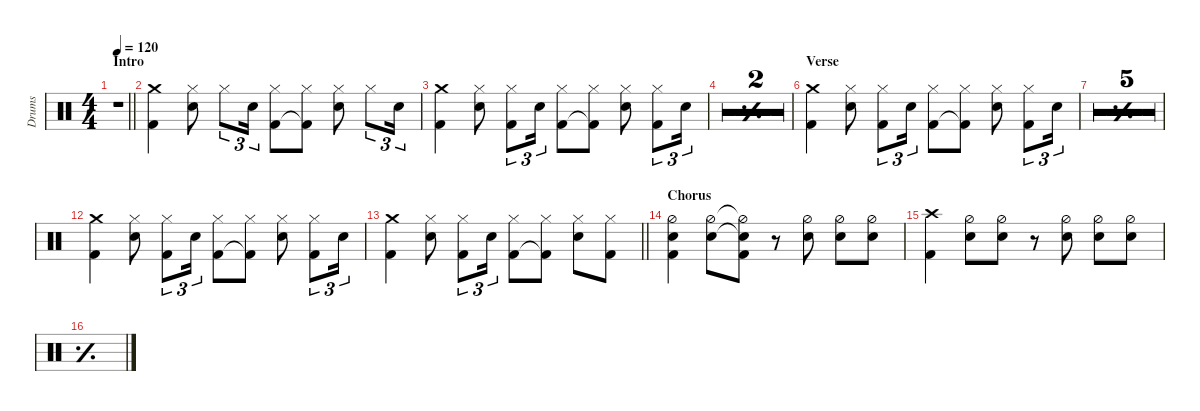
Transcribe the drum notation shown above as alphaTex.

\defaultSystemsLayout 4
\hideDynamics
\bracketExtendMode nobrackets
\otherSystemsTrackNameOrientation horizontal
\track ("Drums" "Drums") {defaultSystemsLayout 8 multiBarRest instrument percussion}
\staff {score}
\articulation defaults
\ts (4 4)
\section ("" "Intro")
\ac
\tempo 120
\clef neutral
\barLineRight lightlight
\ks c
r.1{dy mf beam Down} |
("Kick (hit) 2" "Crash medium (hit)").4{beam Down} ("Snare (hit) 2" "Hi-Hat (closed)").8{beam Down} "Hi-Hat (closed)".8{tu (3 2) beam Down} "Snare (hit) 2".16{tu (3 2) beam Down} ("Kick (hit) 2" "Hi-Hat (closed)").8{beam Down} ("Kick (hit) 2"{t} "Hi-Hat (closed)").8{beam Down} ("Snare (hit) 2" "Hi-Hat (closed)").8{beam Down} "Hi-Hat (closed)".8{tu (3 2) beam Down} "Snare (hit) 2".16{tu (3 2) beam Down} |
("Kick (hit) 2" "Crash medium (hit)").4{beam Down} ("Snare (hit) 2" "Hi-Hat (closed)").8{beam Down} ("Hi-Hat (closed)" "Kick (hit) 2").8{tu (3 2) beam Down} "Snare (hit) 2".16{tu (3 2) beam Down} ("Kick (hit) 2" "Hi-Hat (closed)").8{beam Down} ("Kick (hit) 2"{t} "Hi-Hat (closed)").8{beam Down} ("Snare (hit) 2" "Hi-Hat (closed)").8{beam Down} ("Hi-Hat (closed)" "Kick (hit) 2").8{tu (3 2) beam Down} "Snare (hit) 2".16{tu (3 2) beam Down} |
\simile simple
|
\barLineRight lightlight
|
\section ("" "Verse")
\simile none
("Kick (hit) 2" "Crash medium (hit)").4{beam Down} ("Snare (hit) 2" "Hi-Hat (closed)").8{beam Down} ("Hi-Hat (closed)" "Kick (hit) 2").8{tu (3 2) beam Down} "Snare (hit) 2".16{tu (3 2) beam Down} ("Kick (hit) 2" "Hi-Hat (closed)").8{beam Down} ("Kick (hit) 2"{t} "Hi-Hat (closed)").8{beam Down} ("Snare (hit) 2" "Hi-Hat (closed)").8{beam Down} ("Hi-Hat (closed)" "Kick (hit) 2").8{tu (3 2) beam Down} "Snare (hit) 2".16{tu (3 2) beam Down} |
\simile simple
|
\simile firstofdouble
|
\simile secondofdouble
|
\simile firstofdouble
|
\simile secondofdouble
|
\simile none
("Kick (hit) 2" "Crash medium (hit)").4{beam Down} ("Snare (hit) 2" "Hi-Hat (closed)").8{beam Down} ("Hi-Hat (closed)" "Kick (hit) 2").8{tu (3 2) beam Down} "Snare (hit) 2".16{tu (3 2) beam Down} ("Kick (hit) 2" "Hi-Hat (closed)").8{beam Down} ("Kick (hit) 2"{t} "Hi-Hat (closed)").8{beam Down} ("Snare (hit) 2" "Hi-Hat (closed)").8{beam Down} ("Hi-Hat (closed)" "Kick (hit) 2").8{tu (3 2) beam Down} "Snare (hit) 2".16{tu (3 2) beam Down} |
\barLineRight lightlight
("Kick (hit) 2" "Crash medium (hit)").4{beam Down} ("Snare (hit) 2" "Hi-Hat (closed)").8{beam Down} ("Hi-Hat (closed)" "Kick (hit) 2").8{tu (3 2) beam Down} "Snare (hit) 2".16{tu (3 2) beam Down} ("Kick (hit) 2" "Hi-Hat (closed)").8{beam Down} ("Kick (hit) 2"{t} "Hi-Hat (closed)").8{beam Down} ("Snare (hit) 2" "Hi-Hat (closed)").8{beam Down} ("Hi-Hat (closed)" "Kick (hit) 2").8{beam Down} |
\section ("" "Chorus")
("Kick (hit) 2" "Snare (hit) 2" "Hi-Hat (half)").4{beam Down} ("Hi-Hat (half)" "Snare (hit) 2").8{beam Down} ("Hi-Hat (half)"{t} "Snare (hit) 2"{t} "Kick (hit) 2").8{beam Down} r.8{beam Down} ("Hi-Hat (half)" "Snare (hit) 2").8{beam Down} ("Hi-Hat (half)" "Snare (hit) 2").8{beam Down} ("Snare (hit) 2" "Hi-Hat (half)").8{beam Down} |
("Crash high (hit)" "Kick (hit) 2").4{beam Down} ("Snare (hit) 2" "Hi-Hat (half)").8{beam Down} ("Snare (hit) 2" "Hi-Hat (half)").8{beam Down} r.8{beam Down} ("Snare (hit) 2" "Hi-Hat (half)").8{beam Down} ("Snare (hit) 2" "Hi-Hat (half)").8{beam Down} ("Snare (hit) 2" "Hi-Hat (half)").8{beam Down} |
\simile simple
